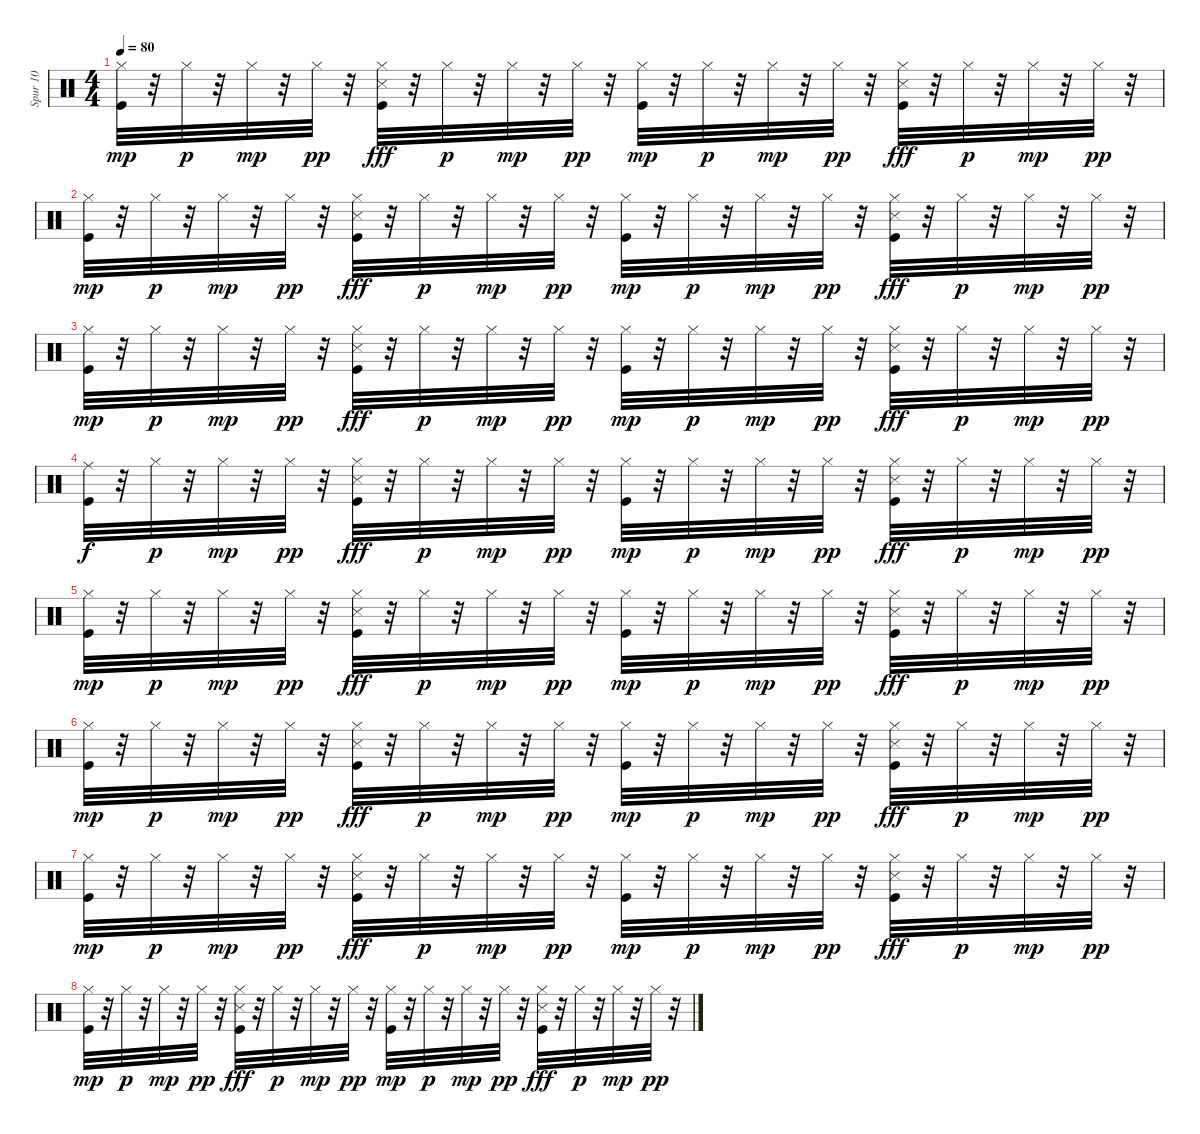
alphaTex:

\track ("Spur 10" "Spur 10") {instrument percussion}
\staff {score}
\articulation defaults
\ts (4 4)
\tempo 80
\clef neutral
\ks c
("Hi-Hat (closed)" "Kick (hit)").32{dy mp} r.32 "Hi-Hat (closed)".32{dy p} r.32 "Hi-Hat (closed)".32{dy mp} r.32 "Hi-Hat (closed)".32{dy pp} r.32 ("Hi-Hat (closed)" "Snare (side stick) 3" "Kick (hit)").32{dy fff} r.32 "Hi-Hat (closed)".32{dy p} r.32 "Hi-Hat (closed)".32{dy mp} r.32 "Hi-Hat (closed)".32{dy pp} r.32 ("Hi-Hat (closed)" "Kick (hit)").32{dy mp} r.32 "Hi-Hat (closed)".32{dy p} r.32 "Hi-Hat (closed)".32{dy mp} r.32 "Hi-Hat (closed)".32{dy pp} r.32 ("Hi-Hat (closed)" "Snare (side stick) 3" "Kick (hit)").32{dy fff} r.32 "Hi-Hat (closed)".32{dy p} r.32 "Hi-Hat (closed)".32{dy mp} r.32 "Hi-Hat (closed)".32{dy pp} r.32 |
("Hi-Hat (closed)" "Kick (hit)").32{dy mp} r.32 "Hi-Hat (closed)".32{dy p} r.32 "Hi-Hat (closed)".32{dy mp} r.32 "Hi-Hat (closed)".32{dy pp} r.32 ("Hi-Hat (closed)" "Snare (side stick) 3" "Kick (hit)").32{dy fff} r.32 "Hi-Hat (closed)".32{dy p} r.32 "Hi-Hat (closed)".32{dy mp} r.32 "Hi-Hat (closed)".32{dy pp} r.32 ("Hi-Hat (closed)" "Kick (hit)").32{dy mp} r.32 "Hi-Hat (closed)".32{dy p} r.32 "Hi-Hat (closed)".32{dy mp} r.32 "Hi-Hat (closed)".32{dy pp} r.32 ("Hi-Hat (closed)" "Snare (side stick) 3" "Kick (hit)").32{dy fff} r.32 "Hi-Hat (closed)".32{dy p} r.32 "Hi-Hat (closed)".32{dy mp} r.32 "Hi-Hat (closed)".32{dy pp} r.32 |
("Hi-Hat (closed)" "Kick (hit)").32{dy mp} r.32 "Hi-Hat (closed)".32{dy p} r.32 "Hi-Hat (closed)".32{dy mp} r.32 "Hi-Hat (closed)".32{dy pp} r.32 ("Hi-Hat (closed)" "Snare (side stick) 3" "Kick (hit)").32{dy fff} r.32 "Hi-Hat (closed)".32{dy p} r.32 "Hi-Hat (closed)".32{dy mp} r.32 "Hi-Hat (closed)".32{dy pp} r.32 ("Hi-Hat (closed)" "Kick (hit)").32{dy mp} r.32 "Hi-Hat (closed)".32{dy p} r.32 "Hi-Hat (closed)".32{dy mp} r.32 "Hi-Hat (closed)".32{dy pp} r.32 ("Hi-Hat (closed)" "Snare (side stick) 3" "Kick (hit)").32{dy fff} r.32 "Hi-Hat (closed)".32{dy p} r.32 "Hi-Hat (closed)".32{dy mp} r.32 "Hi-Hat (closed)".32{dy pp} r.32 |
("Ride (middle)" "Kick (hit)").32{dy f} r.32 "Hi-Hat (closed)".32{dy p} r.32 "Hi-Hat (closed)".32{dy mp} r.32 "Hi-Hat (closed)".32{dy pp} r.32 ("Hi-Hat (closed)" "Snare (side stick) 3" "Kick (hit)").32{dy fff} r.32 "Hi-Hat (closed)".32{dy p} r.32 "Hi-Hat (closed)".32{dy mp} r.32 "Hi-Hat (closed)".32{dy pp} r.32 ("Hi-Hat (closed)" "Kick (hit)").32{dy mp} r.32 "Hi-Hat (closed)".32{dy p} r.32 "Hi-Hat (closed)".32{dy mp} r.32 "Hi-Hat (closed)".32{dy pp} r.32 ("Hi-Hat (closed)" "Snare (side stick) 3" "Kick (hit)").32{dy fff} r.32 "Hi-Hat (closed)".32{dy p} r.32 "Hi-Hat (closed)".32{dy mp} r.32 "Hi-Hat (closed)".32{dy pp} r.32 |
("Hi-Hat (closed)" "Kick (hit)").32{dy mp} r.32 "Hi-Hat (closed)".32{dy p} r.32 "Hi-Hat (closed)".32{dy mp} r.32 "Hi-Hat (closed)".32{dy pp} r.32 ("Hi-Hat (closed)" "Snare (side stick) 3" "Kick (hit)").32{dy fff} r.32 "Hi-Hat (closed)".32{dy p} r.32 "Hi-Hat (closed)".32{dy mp} r.32 "Hi-Hat (closed)".32{dy pp} r.32 ("Hi-Hat (closed)" "Kick (hit)").32{dy mp} r.32 "Hi-Hat (closed)".32{dy p} r.32 "Hi-Hat (closed)".32{dy mp} r.32 "Hi-Hat (closed)".32{dy pp} r.32 ("Hi-Hat (closed)" "Snare (side stick) 3" "Kick (hit)").32{dy fff} r.32 "Hi-Hat (closed)".32{dy p} r.32 "Hi-Hat (closed)".32{dy mp} r.32 "Hi-Hat (closed)".32{dy pp} r.32 |
("Hi-Hat (closed)" "Kick (hit)").32{dy mp} r.32 "Hi-Hat (closed)".32{dy p} r.32 "Hi-Hat (closed)".32{dy mp} r.32 "Hi-Hat (closed)".32{dy pp} r.32 ("Hi-Hat (closed)" "Snare (side stick) 3" "Kick (hit)").32{dy fff} r.32 "Hi-Hat (closed)".32{dy p} r.32 "Hi-Hat (closed)".32{dy mp} r.32 "Hi-Hat (closed)".32{dy pp} r.32 ("Hi-Hat (closed)" "Kick (hit)").32{dy mp} r.32 "Hi-Hat (closed)".32{dy p} r.32 "Hi-Hat (closed)".32{dy mp} r.32 "Hi-Hat (closed)".32{dy pp} r.32 ("Hi-Hat (closed)" "Snare (side stick) 3" "Kick (hit)").32{dy fff} r.32 "Hi-Hat (closed)".32{dy p} r.32 "Hi-Hat (closed)".32{dy mp} r.32 "Hi-Hat (closed)".32{dy pp} r.32 |
("Hi-Hat (closed)" "Kick (hit)").32{dy mp} r.32 "Hi-Hat (closed)".32{dy p} r.32 "Hi-Hat (closed)".32{dy mp} r.32 "Hi-Hat (closed)".32{dy pp} r.32 ("Hi-Hat (closed)" "Snare (side stick) 3" "Kick (hit)").32{dy fff} r.32 "Hi-Hat (closed)".32{dy p} r.32 "Hi-Hat (closed)".32{dy mp} r.32 "Hi-Hat (closed)".32{dy pp} r.32 ("Hi-Hat (closed)" "Kick (hit)").32{dy mp} r.32 "Hi-Hat (closed)".32{dy p} r.32 "Hi-Hat (closed)".32{dy mp} r.32 "Hi-Hat (closed)".32{dy pp} r.32 ("Hi-Hat (closed)" "Snare (side stick) 3" "Kick (hit)").32{dy fff} r.32 "Hi-Hat (closed)".32{dy p} r.32 "Hi-Hat (closed)".32{dy mp} r.32 "Hi-Hat (closed)".32{dy pp} r.32 |
("Hi-Hat (closed)" "Kick (hit)").32{dy mp} r.32 "Hi-Hat (closed)".32{dy p} r.32 "Hi-Hat (closed)".32{dy mp} r.32 "Hi-Hat (closed)".32{dy pp} r.32 ("Hi-Hat (closed)" "Snare (side stick) 3" "Kick (hit)").32{dy fff} r.32 "Hi-Hat (closed)".32{dy p} r.32 "Hi-Hat (closed)".32{dy mp} r.32 "Hi-Hat (closed)".32{dy pp} r.32 ("Hi-Hat (closed)" "Kick (hit)").32{dy mp} r.32 "Hi-Hat (closed)".32{dy p} r.32 "Hi-Hat (closed)".32{dy mp} r.32 "Hi-Hat (closed)".32{dy pp} r.32 ("Hi-Hat (closed)" "Snare (side stick) 3" "Kick (hit)").32{dy fff} r.32 "Hi-Hat (closed)".32{dy p} r.32 "Hi-Hat (closed)".32{dy mp} r.32 "Hi-Hat (closed)".32{dy pp} r.32
